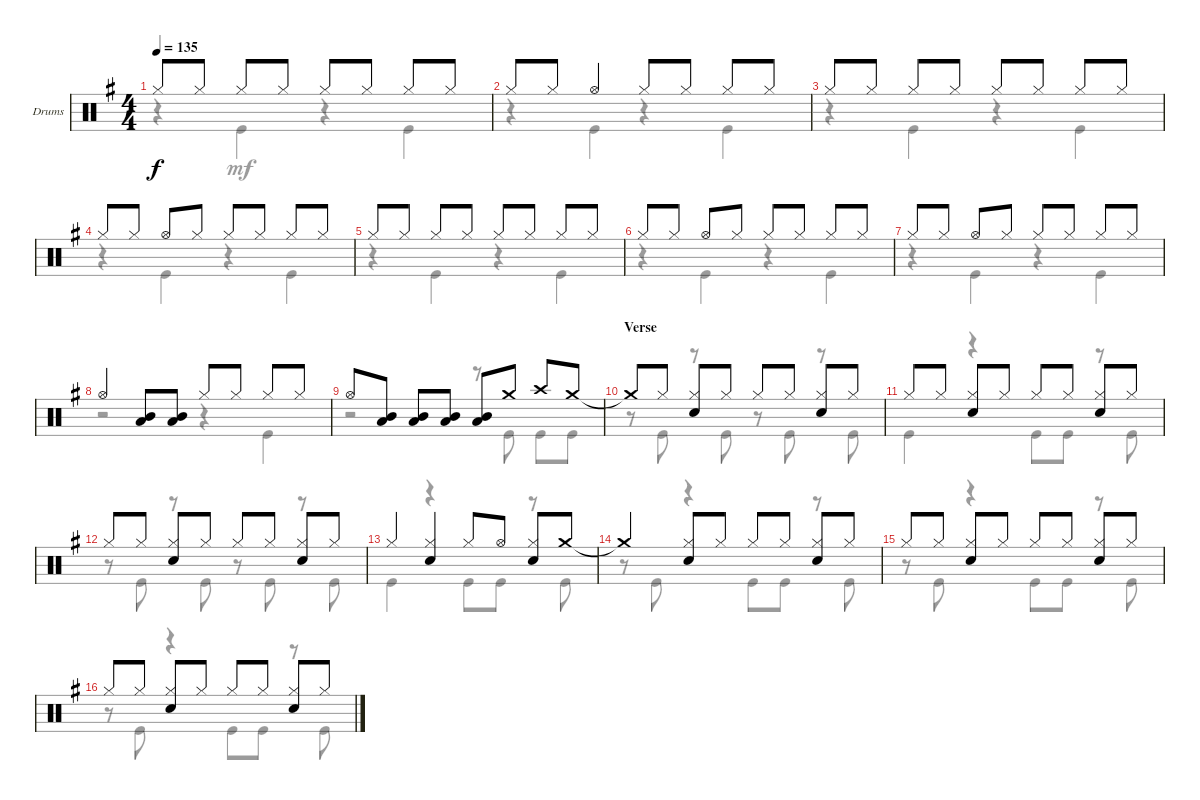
\defaultSystemsLayout 4
\bracketExtendMode groupsimilarinstruments
\firstSystemTrackNameOrientation horizontal
\otherSystemsTrackNameOrientation horizontal
\track ("Drumkit" "Drums") {instrument percussion}
\staff {score}
\articulation defaults
\voice
\ts (4 4)
\tempo 135
\clef neutral
\ks g "Hi-Hat (closed)".8{dy f} "Hi-Hat (closed)".8 "Hi-Hat (closed)".8 "Hi-Hat (closed)".8 "Hi-Hat (closed)".8 "Hi-Hat (closed)".8 "Hi-Hat (closed)".8 "Hi-Hat (closed)".8
|
"Hi-Hat (closed)".8 "Hi-Hat (closed)".8 "Hi-Hat (open)".4 "Hi-Hat (closed)".8 "Hi-Hat (closed)".8 "Hi-Hat (closed)".8 "Hi-Hat (closed)".8 |
"Hi-Hat (closed)".8 "Hi-Hat (closed)".8 "Hi-Hat (closed)".8 "Hi-Hat (closed)".8 "Hi-Hat (closed)".8 "Hi-Hat (closed)".8 "Hi-Hat (closed)".8 "Hi-Hat (closed)".8 |
"Hi-Hat (closed)".8 "Hi-Hat (closed)".8 "Hi-Hat (open)".8 "Hi-Hat (closed)".8 "Hi-Hat (closed)".8 "Hi-Hat (closed)".8 "Hi-Hat (closed)".8 "Hi-Hat (closed)".8 |
"Hi-Hat (closed)".8 "Hi-Hat (closed)".8 "Hi-Hat (closed)".8 "Hi-Hat (closed)".8 "Hi-Hat (closed)".8 "Hi-Hat (closed)".8 "Hi-Hat (closed)".8 "Hi-Hat (closed)".8 |
"Hi-Hat (closed)".8 "Hi-Hat (closed)".8 "Hi-Hat (open)".8 "Hi-Hat (closed)".8 "Hi-Hat (closed)".8 "Hi-Hat (closed)".8 "Hi-Hat (closed)".8 "Hi-Hat (closed)".8 |
"Hi-Hat (closed)".8 "Hi-Hat (closed)".8 "Hi-Hat (open)".8 "Hi-Hat (closed)".8 "Hi-Hat (closed)".8 "Hi-Hat (closed)".8 "Hi-Hat (closed)".8 "Hi-Hat (closed)".8 |
"Hi-Hat (open)".4 ("Mid Tom (hit)" "Low Tom (hit)").8 ("Mid Tom (hit)" "Low Tom (hit)").8 "Hi-Hat (closed)".8 "Hi-Hat (closed)".8 "Hi-Hat (closed)".8 "Hi-Hat (closed)".8 |
"Hi-Hat (open)".8 ("Mid Tom (hit)" "Low Tom (hit)").8 ("Mid Tom (hit)" "Low Tom (hit)").8 ("Mid Tom (hit)" "Low Tom (hit)").8 ("Mid Tom (hit)" "Low Tom (hit)").8 "Crash medium (hit)".8 "Crash high (hit)".8 "Crash medium (hit)".8 |
\section ("" "Verse")
"Crash medium (hit)"{t}.8 "Hi-Hat (closed)".8 ("Hi-Hat (closed)" "Snare (hit) 2").8 "Hi-Hat (closed)".8 "Hi-Hat (closed)".8 "Hi-Hat (closed)".8 ("Hi-Hat (closed)" "Snare (hit) 2").8 "Hi-Hat (closed)".8 |
"Hi-Hat (closed)".8 "Hi-Hat (closed)".8 ("Hi-Hat (closed)" "Snare (hit) 2").8 "Hi-Hat (closed)".8 "Hi-Hat (closed)".8 "Hi-Hat (closed)".8 ("Hi-Hat (closed)" "Snare (hit) 2").8 "Hi-Hat (closed)".8 |
"Hi-Hat (closed)".8 "Hi-Hat (closed)".8 ("Hi-Hat (closed)" "Snare (hit) 2").8 "Hi-Hat (closed)".8 "Hi-Hat (closed)".8 "Hi-Hat (closed)".8 ("Hi-Hat (closed)" "Snare (hit) 2").8 "Hi-Hat (closed)".8 |
"Hi-Hat (closed)".4 ("Hi-Hat (closed)" "Snare (hit) 2").4 "Hi-Hat (closed)".8 "Hi-Hat (open)".8 ("Hi-Hat (closed)" "Snare (hit) 2").8 "Crash medium (hit)".8 |
"Crash medium (hit)"{t}.4 ("Hi-Hat (closed)" "Snare (hit) 2").8 "Hi-Hat (closed)".8 "Hi-Hat (closed)".8 "Hi-Hat (closed)".8 ("Hi-Hat (closed)" "Snare (hit) 2").8 "Hi-Hat (closed)".8 |
"Hi-Hat (closed)".8 "Hi-Hat (closed)".8 ("Hi-Hat (closed)" "Snare (hit) 2").8 "Hi-Hat (closed)".8 "Hi-Hat (closed)".8 "Hi-Hat (closed)".8 ("Hi-Hat (closed)" "Snare (hit) 2").8 "Hi-Hat (closed)".8 |
"Hi-Hat (closed)".8 "Hi-Hat (closed)".8 ("Hi-Hat (closed)" "Snare (hit) 2").8 "Hi-Hat (closed)".8 "Hi-Hat (closed)".8 "Hi-Hat (closed)".8 ("Hi-Hat (closed)" "Snare (hit) 2").8 "Hi-Hat (closed)".8
\voice
\clef neutral
\ottava regular
\simile none
\ks g
r.4{dy mf} "Kick (hit)".4 r.4 "Kick (hit)".4 |
r.4 "Kick (hit)".4 r.4 "Kick (hit)".4 |
r.4 "Kick (hit)".4 r.4 "Kick (hit)".4 |
r.4 "Kick (hit)".4 r.4 "Kick (hit)".4 |
r.4 "Kick (hit)".4 r.4 "Kick (hit)".4 |
r.4 "Kick (hit)".4 r.4 "Kick (hit)".4 |
r.4 "Kick (hit)".4 r.4 "Kick (hit)".4 |
r.2 r.4 "Kick (hit)".4 |
r.2 r.8 "Kick (hit)".8 "Kick (hit)".8 "Kick (hit)".8 |
r.8 "Kick (hit)".8 r.8 "Kick (hit)".8 r.8 "Kick (hit)".8 r.8 "Kick (hit)".8 |
"Kick (hit)".4 r.4 "Kick (hit)".8 "Kick (hit)".8 r.8 "Kick (hit)".8 |
r.8 "Kick (hit)".8 r.8 "Kick (hit)".8 r.8 "Kick (hit)".8 r.8 "Kick (hit)".8 |
"Kick (hit)".4 r.4 "Kick (hit)".8 "Kick (hit)".8 r.8 "Kick (hit)".8 |
r.8 "Kick (hit)".8 r.4 "Kick (hit)".8 "Kick (hit)".8 r.8 "Kick (hit)".8 |
r.8 "Kick (hit)".8 r.4 "Kick (hit)".8 "Kick (hit)".8 r.8 "Kick (hit)".8 |
r.8 "Kick (hit)".8 r.4 "Kick (hit)".8 "Kick (hit)".8 r.8 "Kick (hit)".8
